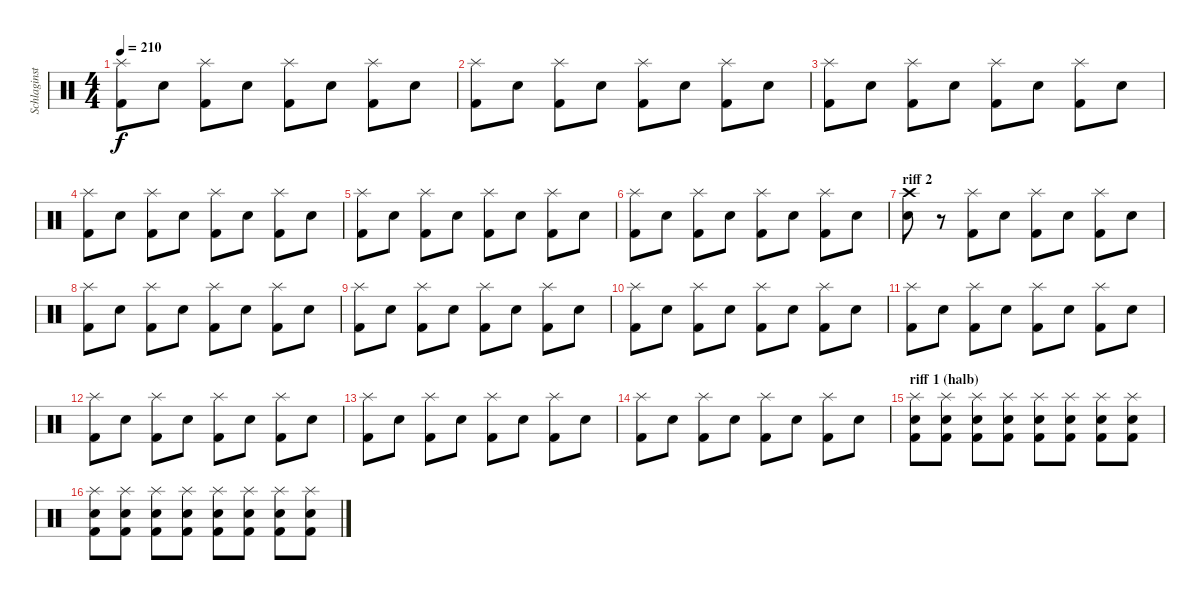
\track ("Schlaginstrumente - Auswahl" "Schlaginst") {instrument percussion}
\staff {score}
\articulation defaults
\ts (4 4)
\tempo 210
\clef neutral
\ks c
("Splash (hit)" "Kick (hit) 2").8{dy f} "Electric Snare (hit)".8 ("Splash (hit)" "Kick (hit) 2").8 "Electric Snare (hit)".8 ("Splash (hit)" "Kick (hit) 2").8 "Electric Snare (hit)".8 ("Splash (hit)" "Kick (hit) 2").8 "Electric Snare (hit)".8 |
("Splash (hit)" "Kick (hit) 2").8 "Electric Snare (hit)".8 ("Splash (hit)" "Kick (hit) 2").8 "Electric Snare (hit)".8 ("Splash (hit)" "Kick (hit) 2").8 "Electric Snare (hit)".8 ("Splash (hit)" "Kick (hit) 2").8 "Electric Snare (hit)".8 |
("Splash (hit)" "Kick (hit) 2").8 "Electric Snare (hit)".8 ("Splash (hit)" "Kick (hit) 2").8 "Electric Snare (hit)".8 ("Splash (hit)" "Kick (hit) 2").8 "Electric Snare (hit)".8 ("Splash (hit)" "Kick (hit) 2").8 "Electric Snare (hit)".8 |
("Splash (hit)" "Kick (hit) 2").8 "Electric Snare (hit)".8 ("Splash (hit)" "Kick (hit) 2").8 "Electric Snare (hit)".8 ("Splash (hit)" "Kick (hit) 2").8 "Electric Snare (hit)".8 ("Splash (hit)" "Kick (hit) 2").8 "Electric Snare (hit)".8 |
("Splash (hit)" "Kick (hit) 2").8 "Electric Snare (hit)".8 ("Splash (hit)" "Kick (hit) 2").8 "Electric Snare (hit)".8 ("Splash (hit)" "Kick (hit) 2").8 "Electric Snare (hit)".8 ("Splash (hit)" "Kick (hit) 2").8 "Electric Snare (hit)".8 |
("Splash (hit)" "Kick (hit) 2").8 "Electric Snare (hit)".8 ("Splash (hit)" "Kick (hit) 2").8 "Electric Snare (hit)".8 ("Splash (hit)" "Kick (hit) 2").8 "Electric Snare (hit)".8 ("Splash (hit)" "Kick (hit) 2").8 "Electric Snare (hit)".8 |
\section ("" "riff 2")
("Electric Snare (hit)" "Crash high (hit)").8 r.8 ("Splash (hit)" "Kick (hit) 2").8 "Electric Snare (hit)".8 ("Splash (hit)" "Kick (hit) 2").8 "Electric Snare (hit)".8 ("Splash (hit)" "Kick (hit) 2").8 "Electric Snare (hit)".8 |
("Splash (hit)" "Kick (hit) 2").8 "Electric Snare (hit)".8 ("Splash (hit)" "Kick (hit) 2").8 "Electric Snare (hit)".8 ("Splash (hit)" "Kick (hit) 2").8 "Electric Snare (hit)".8 ("Splash (hit)" "Kick (hit) 2").8 "Electric Snare (hit)".8 |
("Splash (hit)" "Kick (hit) 2").8 "Electric Snare (hit)".8 ("Splash (hit)" "Kick (hit) 2").8 "Electric Snare (hit)".8 ("Splash (hit)" "Kick (hit) 2").8 "Electric Snare (hit)".8 ("Splash (hit)" "Kick (hit) 2").8 "Electric Snare (hit)".8 |
("Splash (hit)" "Kick (hit) 2").8 "Electric Snare (hit)".8 ("Splash (hit)" "Kick (hit) 2").8 "Electric Snare (hit)".8 ("Splash (hit)" "Kick (hit) 2").8 "Electric Snare (hit)".8 ("Splash (hit)" "Kick (hit) 2").8 "Electric Snare (hit)".8 |
("Splash (hit)" "Kick (hit) 2").8 "Electric Snare (hit)".8 ("Splash (hit)" "Kick (hit) 2").8 "Electric Snare (hit)".8 ("Splash (hit)" "Kick (hit) 2").8 "Electric Snare (hit)".8 ("Splash (hit)" "Kick (hit) 2").8 "Electric Snare (hit)".8 |
("Splash (hit)" "Kick (hit) 2").8 "Electric Snare (hit)".8 ("Splash (hit)" "Kick (hit) 2").8 "Electric Snare (hit)".8 ("Splash (hit)" "Kick (hit) 2").8 "Electric Snare (hit)".8 ("Splash (hit)" "Kick (hit) 2").8 "Electric Snare (hit)".8 |
("Splash (hit)" "Kick (hit) 2").8 "Electric Snare (hit)".8 ("Splash (hit)" "Kick (hit) 2").8 "Electric Snare (hit)".8 ("Splash (hit)" "Kick (hit) 2").8 "Electric Snare (hit)".8 ("Splash (hit)" "Kick (hit) 2").8 "Electric Snare (hit)".8 |
("Splash (hit)" "Kick (hit) 2").8 "Electric Snare (hit)".8 ("Splash (hit)" "Kick (hit) 2").8 "Electric Snare (hit)".8 ("Splash (hit)" "Kick (hit) 2").8 "Electric Snare (hit)".8 ("Splash (hit)" "Kick (hit) 2").8 "Electric Snare (hit)".8 |
\section ("" "riff 1 (halb)")
("Electric Snare (hit)" "Splash (hit)" "Kick (hit) 2").8 ("Electric Snare (hit)" "Splash (hit)" "Kick (hit) 2").8 ("Electric Snare (hit)" "Splash (hit)" "Kick (hit) 2").8 ("Electric Snare (hit)" "Splash (hit)" "Kick (hit) 2").8 ("Electric Snare (hit)" "Splash (hit)" "Kick (hit) 2").8 ("Electric Snare (hit)" "Splash (hit)" "Kick (hit) 2").8 ("Electric Snare (hit)" "Splash (hit)" "Kick (hit) 2").8 ("Electric Snare (hit)" "Splash (hit)" "Kick (hit) 2").8 |
("Electric Snare (hit)" "Splash (hit)" "Kick (hit) 2").8 ("Electric Snare (hit)" "Splash (hit)" "Kick (hit) 2").8 ("Electric Snare (hit)" "Splash (hit)" "Kick (hit) 2").8 ("Electric Snare (hit)" "Splash (hit)" "Kick (hit) 2").8 ("Electric Snare (hit)" "Splash (hit)" "Kick (hit) 2").8 ("Electric Snare (hit)" "Splash (hit)" "Kick (hit) 2").8 ("Electric Snare (hit)" "Splash (hit)" "Kick (hit) 2").8 ("Electric Snare (hit)" "Splash (hit)" "Kick (hit) 2").8
